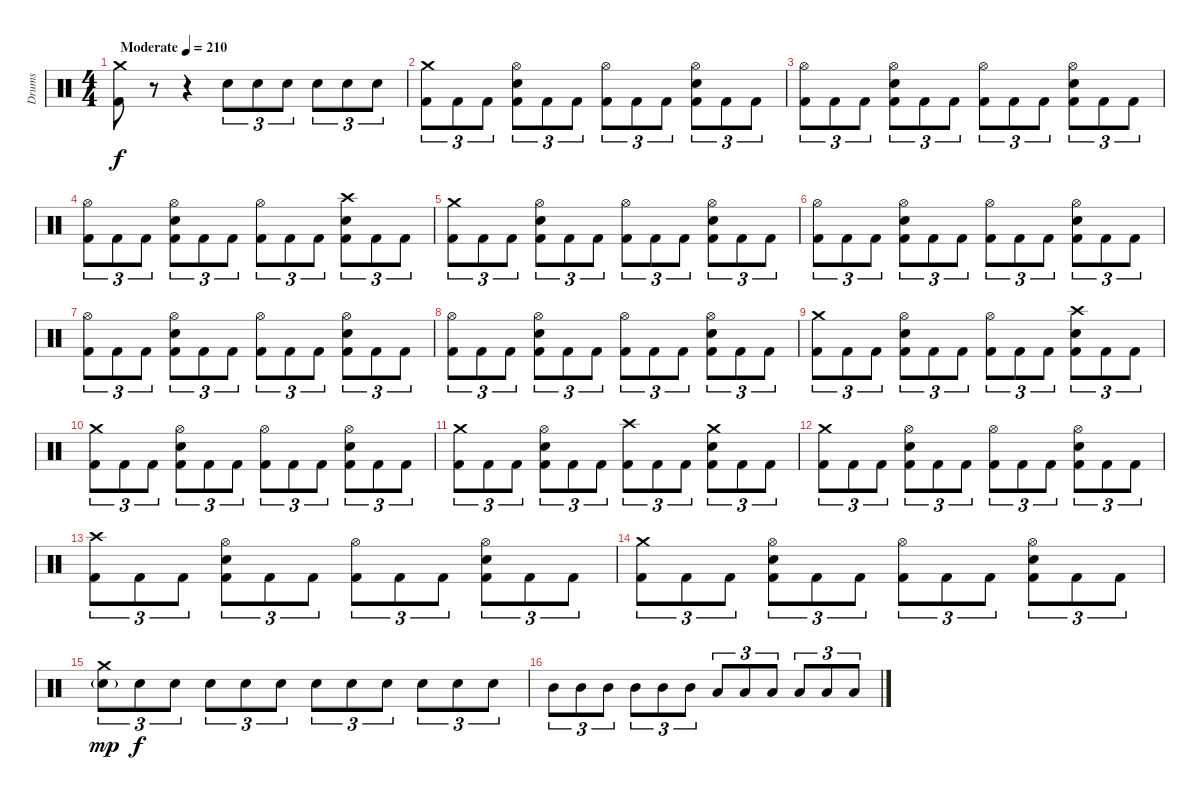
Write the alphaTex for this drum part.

\track ("Drums" "Drums") {instrument percussion}
\staff {score}
\articulation defaults
\ts (4 4)
\tempo (210 "Moderate")
\clef neutral
\ks c
("Crash medium (hit)" "Kick (hit) 2").8{dy f} r.8 r.4 "Electric Snare (hit)".8{tu (3 2)} "Electric Snare (hit)".8{tu (3 2)} "Electric Snare (hit)".8{tu (3 2)} "Electric Snare (hit)".8{tu (3 2)} "Electric Snare (hit)".8{tu (3 2)} "Electric Snare (hit)".8{tu (3 2)} |
("Crash medium (hit)" "Kick (hit) 2").8{tu (3 2)} "Kick (hit) 2".8{tu (3 2)} "Kick (hit) 2".8{tu (3 2)} ("Hi-Hat (open)" "Electric Snare (hit)" "Kick (hit) 2").8{tu (3 2)} "Kick (hit) 2".8{tu (3 2)} "Kick (hit) 2".8{tu (3 2)} ("Hi-Hat (open)" "Kick (hit) 2").8{tu (3 2)} "Kick (hit) 2".8{tu (3 2)} "Kick (hit) 2".8{tu (3 2)} ("Hi-Hat (open)" "Electric Snare (hit)" "Kick (hit) 2").8{tu (3 2)} "Kick (hit) 2".8{tu (3 2)} "Kick (hit) 2".8{tu (3 2)} |
("Hi-Hat (open)" "Kick (hit) 2").8{tu (3 2)} "Kick (hit) 2".8{tu (3 2)} "Kick (hit) 2".8{tu (3 2)} ("Hi-Hat (open)" "Electric Snare (hit)" "Kick (hit) 2").8{tu (3 2)} "Kick (hit) 2".8{tu (3 2)} "Kick (hit) 2".8{tu (3 2)} ("Hi-Hat (open)" "Kick (hit) 2").8{tu (3 2)} "Kick (hit) 2".8{tu (3 2)} "Kick (hit) 2".8{tu (3 2)} ("Hi-Hat (open)" "Electric Snare (hit)" "Kick (hit) 2").8{tu (3 2)} "Kick (hit) 2".8{tu (3 2)} "Kick (hit) 2".8{tu (3 2)} |
("Hi-Hat (open)" "Kick (hit) 2").8{tu (3 2)} "Kick (hit) 2".8{tu (3 2)} "Kick (hit) 2".8{tu (3 2)} ("Hi-Hat (open)" "Electric Snare (hit)" "Kick (hit) 2").8{tu (3 2)} "Kick (hit) 2".8{tu (3 2)} "Kick (hit) 2".8{tu (3 2)} ("Hi-Hat (open)" "Kick (hit) 2").8{tu (3 2)} "Kick (hit) 2".8{tu (3 2)} "Kick (hit) 2".8{tu (3 2)} ("Crash high (hit)" "Electric Snare (hit)" "Kick (hit) 2").8{tu (3 2)} "Kick (hit) 2".8{tu (3 2)} "Kick (hit) 2".8{tu (3 2)} |
("Crash medium (hit)" "Kick (hit) 2").8{tu (3 2)} "Kick (hit) 2".8{tu (3 2)} "Kick (hit) 2".8{tu (3 2)} ("Hi-Hat (open)" "Electric Snare (hit)" "Kick (hit) 2").8{tu (3 2)} "Kick (hit) 2".8{tu (3 2)} "Kick (hit) 2".8{tu (3 2)} ("Hi-Hat (open)" "Kick (hit) 2").8{tu (3 2)} "Kick (hit) 2".8{tu (3 2)} "Kick (hit) 2".8{tu (3 2)} ("Hi-Hat (open)" "Electric Snare (hit)" "Kick (hit) 2").8{tu (3 2)} "Kick (hit) 2".8{tu (3 2)} "Kick (hit) 2".8{tu (3 2)} |
("Hi-Hat (open)" "Kick (hit) 2").8{tu (3 2)} "Kick (hit) 2".8{tu (3 2)} "Kick (hit) 2".8{tu (3 2)} ("Hi-Hat (open)" "Electric Snare (hit)" "Kick (hit) 2").8{tu (3 2)} "Kick (hit) 2".8{tu (3 2)} "Kick (hit) 2".8{tu (3 2)} ("Hi-Hat (open)" "Kick (hit) 2").8{tu (3 2)} "Kick (hit) 2".8{tu (3 2)} "Kick (hit) 2".8{tu (3 2)} ("Hi-Hat (open)" "Electric Snare (hit)" "Kick (hit) 2").8{tu (3 2)} "Kick (hit) 2".8{tu (3 2)} "Kick (hit) 2".8{tu (3 2)} |
("Hi-Hat (open)" "Kick (hit) 2").8{tu (3 2)} "Kick (hit) 2".8{tu (3 2)} "Kick (hit) 2".8{tu (3 2)} ("Hi-Hat (open)" "Electric Snare (hit)" "Kick (hit) 2").8{tu (3 2)} "Kick (hit) 2".8{tu (3 2)} "Kick (hit) 2".8{tu (3 2)} ("Hi-Hat (open)" "Kick (hit) 2").8{tu (3 2)} "Kick (hit) 2".8{tu (3 2)} "Kick (hit) 2".8{tu (3 2)} ("Hi-Hat (open)" "Electric Snare (hit)" "Kick (hit) 2").8{tu (3 2)} "Kick (hit) 2".8{tu (3 2)} "Kick (hit) 2".8{tu (3 2)} |
("Hi-Hat (open)" "Kick (hit) 2").8{tu (3 2)} "Kick (hit) 2".8{tu (3 2)} "Kick (hit) 2".8{tu (3 2)} ("Hi-Hat (open)" "Electric Snare (hit)" "Kick (hit) 2").8{tu (3 2)} "Kick (hit) 2".8{tu (3 2)} "Kick (hit) 2".8{tu (3 2)} ("Hi-Hat (open)" "Kick (hit) 2").8{tu (3 2)} "Kick (hit) 2".8{tu (3 2)} "Kick (hit) 2".8{tu (3 2)} ("Hi-Hat (open)" "Electric Snare (hit)" "Kick (hit) 2").8{tu (3 2)} "Kick (hit) 2".8{tu (3 2)} "Kick (hit) 2".8{tu (3 2)} |
("Crash medium (hit)" "Kick (hit) 2").8{tu (3 2)} "Kick (hit) 2".8{tu (3 2)} "Kick (hit) 2".8{tu (3 2)} ("Hi-Hat (open)" "Electric Snare (hit)" "Kick (hit) 2").8{tu (3 2)} "Kick (hit) 2".8{tu (3 2)} "Kick (hit) 2".8{tu (3 2)} ("Hi-Hat (open)" "Kick (hit) 2").8{tu (3 2)} "Kick (hit) 2".8{tu (3 2)} "Kick (hit) 2".8{tu (3 2)} ("Crash high (hit)" "Electric Snare (hit)" "Kick (hit) 2").8{tu (3 2)} "Kick (hit) 2".8{tu (3 2)} "Kick (hit) 2".8{tu (3 2)} |
("Crash medium (hit)" "Kick (hit) 2").8{tu (3 2)} "Kick (hit) 2".8{tu (3 2)} "Kick (hit) 2".8{tu (3 2)} ("Hi-Hat (open)" "Electric Snare (hit)" "Kick (hit) 2").8{tu (3 2)} "Kick (hit) 2".8{tu (3 2)} "Kick (hit) 2".8{tu (3 2)} ("Hi-Hat (open)" "Kick (hit) 2").8{tu (3 2)} "Kick (hit) 2".8{tu (3 2)} "Kick (hit) 2".8{tu (3 2)} ("Hi-Hat (open)" "Electric Snare (hit)" "Kick (hit) 2").8{tu (3 2)} "Kick (hit) 2".8{tu (3 2)} "Kick (hit) 2".8{tu (3 2)} |
("Crash medium (hit)" "Kick (hit) 2").8{tu (3 2)} "Kick (hit) 2".8{tu (3 2)} "Kick (hit) 2".8{tu (3 2)} ("Hi-Hat (open)" "Electric Snare (hit)" "Kick (hit) 2").8{tu (3 2)} "Kick (hit) 2".8{tu (3 2)} "Kick (hit) 2".8{tu (3 2)} ("Crash high (hit)" "Kick (hit) 2").8{tu (3 2)} "Kick (hit) 2".8{tu (3 2)} "Kick (hit) 2".8{tu (3 2)} ("Crash medium (hit)" "Electric Snare (hit)" "Kick (hit) 2").8{tu (3 2)} "Kick (hit) 2".8{tu (3 2)} "Kick (hit) 2".8{tu (3 2)} |
("Crash medium (hit)" "Kick (hit) 2").8{tu (3 2)} "Kick (hit) 2".8{tu (3 2)} "Kick (hit) 2".8{tu (3 2)} ("Hi-Hat (open)" "Electric Snare (hit)" "Kick (hit) 2").8{tu (3 2)} "Kick (hit) 2".8{tu (3 2)} "Kick (hit) 2".8{tu (3 2)} ("Hi-Hat (open)" "Kick (hit) 2").8{tu (3 2)} "Kick (hit) 2".8{tu (3 2)} "Kick (hit) 2".8{tu (3 2)} ("Hi-Hat (open)" "Electric Snare (hit)" "Kick (hit) 2").8{tu (3 2)} "Kick (hit) 2".8{tu (3 2)} "Kick (hit) 2".8{tu (3 2)} |
("Crash high (hit)" "Kick (hit) 2").8{tu (3 2)} "Kick (hit) 2".8{tu (3 2)} "Kick (hit) 2".8{tu (3 2)} ("Hi-Hat (open)" "Electric Snare (hit)" "Kick (hit) 2").8{tu (3 2)} "Kick (hit) 2".8{tu (3 2)} "Kick (hit) 2".8{tu (3 2)} ("Hi-Hat (open)" "Kick (hit) 2").8{tu (3 2)} "Kick (hit) 2".8{tu (3 2)} "Kick (hit) 2".8{tu (3 2)} ("Hi-Hat (open)" "Electric Snare (hit)" "Kick (hit) 2").8{tu (3 2)} "Kick (hit) 2".8{tu (3 2)} "Kick (hit) 2".8{tu (3 2)} |
("Crash medium (hit)" "Kick (hit) 2").8{tu (3 2)} "Kick (hit) 2".8{tu (3 2)} "Kick (hit) 2".8{tu (3 2)} ("Hi-Hat (open)" "Electric Snare (hit)" "Kick (hit) 2").8{tu (3 2)} "Kick (hit) 2".8{tu (3 2)} "Kick (hit) 2".8{tu (3 2)} ("Hi-Hat (open)" "Kick (hit) 2").8{tu (3 2)} "Kick (hit) 2".8{tu (3 2)} "Kick (hit) 2".8{tu (3 2)} ("Hi-Hat (open)" "Electric Snare (hit)" "Kick (hit) 2").8{tu (3 2)} "Kick (hit) 2".8{tu (3 2)} "Kick (hit) 2".8{tu (3 2)} |
("Crash medium (hit)" "Electric Snare (hit)"{g}).8{tu (3 2) dy mp} "Electric Snare (hit)".8{tu (3 2) dy f} "Electric Snare (hit)".8{tu (3 2)} "Electric Snare (hit)".8{tu (3 2)} "Electric Snare (hit)".8{tu (3 2)} "Electric Snare (hit)".8{tu (3 2)} "Electric Snare (hit)".8{tu (3 2)} "Electric Snare (hit)".8{tu (3 2)} "Electric Snare (hit)".8{tu (3 2)} "Electric Snare (hit)".8{tu (3 2)} "Electric Snare (hit)".8{tu (3 2)} "Electric Snare (hit)".8{tu (3 2)} |
"Mid Tom (hit)".8{tu (3 2)} "Mid Tom (hit)".8{tu (3 2)} "Mid Tom (hit)".8{tu (3 2)} "Mid Tom (hit)".8{tu (3 2)} "Mid Tom (hit)".8{tu (3 2)} "Mid Tom (hit)".8{tu (3 2)} "Low Tom (hit)".8{tu (3 2)} "Low Tom (hit)".8{tu (3 2)} "Low Tom (hit)".8{tu (3 2)} "Low Tom (hit)".8{tu (3 2)} "Low Tom (hit)".8{tu (3 2)} "Low Tom (hit)".8{tu (3 2)}
